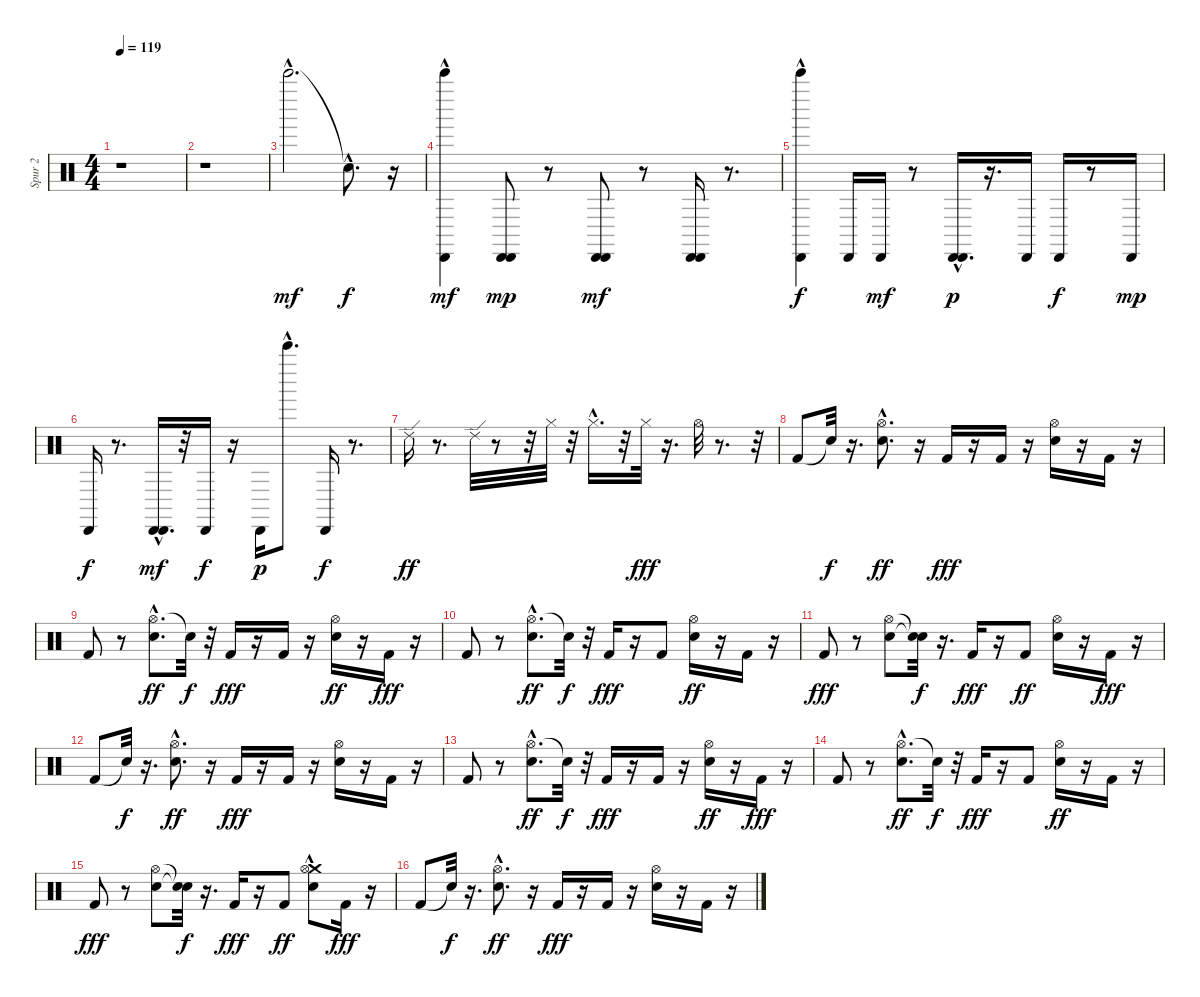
\track ("Spur 2" "Spur 2") {instrument percussion}
\staff {score}
\articulation defaults
\ts (4 4)
\tempo 119
\clef neutral
\ks c
r.1{dy mf} |
r.1 |
"Bell Tree (hit)"{hac}.2{d} "Snare (hit)"{hac t}.8{d dy f} r.16 |
("Cabasa (hit)" "Bell Tree (hit)"{hac}).4{dy mf} ("Cabasa (hit)" "Cabasa (hit)").8{dy mp} r.8 ("Cabasa (hit)" "Cabasa (hit)").8{dy mf} r.8 ("Cabasa (hit)" "Cabasa (hit)").16 r.8{d} |
("Cabasa (hit)"{hac} "Bell Tree (hit)").4{dy f} "Cabasa (hit)".16 "Cabasa (hit)".16{dy mf} r.8 ("Cabasa (hit)"{hac} "Cabasa (hit)"{hac}).16{d dy p} r.16{d} "Cabasa (hit)".16 "Cabasa (hit)".16{dy f} r.8 "Cabasa (hit)".16{dy mp} |
"Cabasa (hit)".16{dy f} r.8{d} ("Cabasa (hit)"{hac} "Cabasa (hit)"{hac}).16{d dy mf} r.32 "Cabasa (hit)".16{dy f} r.16 "Cabasa (hit)".16{dy p} "Bell Tree (hit)"{hac}.8{d} "Cabasa (hit)".16{dy f} r.8{d} |
"Ride (edge) 2".16{dy ff} r.8{d} "Ride (edge) 2".32 r.8 r.32 "Hi-Hat (closed)".32 r.32 "Hi-Hat (closed)"{hac}.16{d} r.32 "Hi-Hat (closed)".32{dy fff} r.16{d} "Hi-Hat (open)".32 r.8{d} r.32 |
"Kick (hit) 2".8 "Snare (hit)"{t}.32{dy f} r.16{d} ("Hi-Hat (open)"{hac} "Electric Snare (hit)").8{d dy ff} r.16 "Kick (hit) 2".16{dy fff} r.16 "Kick (hit) 2".16 r.16 ("Hi-Hat (open)" "Electric Snare (hit)").16 r.16 "Kick (hit) 2".16 r.16 |
"Kick (hit) 2".8 r.8 ("Hi-Hat (open)"{hac} "Electric Snare (hit)").8{d dy ff} "Snare (hit)"{t}.32{dy f} r.32 "Kick (hit) 2".16{dy fff} r.16 "Kick (hit) 2".16 r.16 ("Hi-Hat (open)" "Electric Snare (hit)").16{dy ff} r.16 "Kick (hit) 2".16{dy fff} r.16 |
"Kick (hit) 2".8 r.8 ("Hi-Hat (open)"{hac} "Electric Snare (hit)").8{d dy ff} "Snare (hit)"{t}.32{dy f} r.32 "Kick (hit) 2".16{dy fff} r.16 "Kick (hit) 2".8 ("Hi-Hat (open)" "Electric Snare (hit)").16{dy ff} r.16 "Kick (hit) 2".16 r.16 |
"Kick (hit) 2".8{dy fff} r.8 ("Hi-Hat (open)" "Electric Snare (hit)").8 ("Snare (hit)"{t} "Snare (hit)"{t}).32{dy f} r.16{d} "Kick (hit) 2".16{dy fff} r.16 "Kick (hit) 2".8{dy ff} ("Hi-Hat (open)" "Electric Snare (hit)").16 r.16 "Kick (hit) 2".16{dy fff} r.16 |
"Kick (hit) 2".8 "Snare (hit)"{t}.32{dy f} r.16{d} ("Hi-Hat (open)"{hac} "Electric Snare (hit)").8{d dy ff} r.16 "Kick (hit) 2".16{dy fff} r.16 "Kick (hit) 2".16 r.16 ("Hi-Hat (open)" "Electric Snare (hit)").16 r.16 "Kick (hit) 2".16 r.16 |
"Kick (hit) 2".8 r.8 ("Hi-Hat (open)"{hac} "Electric Snare (hit)").8{d dy ff} "Snare (hit)"{t}.32{dy f} r.32 "Kick (hit) 2".16{dy fff} r.16 "Kick (hit) 2".16 r.16 ("Hi-Hat (open)" "Electric Snare (hit)").16{dy ff} r.16 "Kick (hit) 2".16{dy fff} r.16 |
"Kick (hit) 2".8 r.8 ("Hi-Hat (open)"{hac} "Electric Snare (hit)").8{d dy ff} "Snare (hit)"{t}.32{dy f} r.32 "Kick (hit) 2".16{dy fff} r.16 "Kick (hit) 2".8 ("Hi-Hat (open)" "Electric Snare (hit)").16{dy ff} r.16 "Kick (hit) 2".16 r.16 |
"Kick (hit) 2".8{dy fff} r.8 ("Hi-Hat (open)" "Electric Snare (hit)").8 ("Snare (hit)"{t} "Snare (hit)"{t}).32{dy f} r.16{d} "Kick (hit) 2".16{dy fff} r.16 "Kick (hit) 2".8{dy ff} ("Crash medium (hit)"{hac} "Hi-Hat (open)" "Electric Snare (hit)").8 "Kick (hit) 2".16{dy fff} r.16 |
"Kick (hit) 2".8 "Snare (hit)"{t}.32{dy f} r.16{d} ("Hi-Hat (open)"{hac} "Electric Snare (hit)").8{d dy ff} r.16 "Kick (hit) 2".16{dy fff} r.16 "Kick (hit) 2".16 r.16 ("Hi-Hat (open)" "Electric Snare (hit)").16 r.16 "Kick (hit) 2".16 r.16
